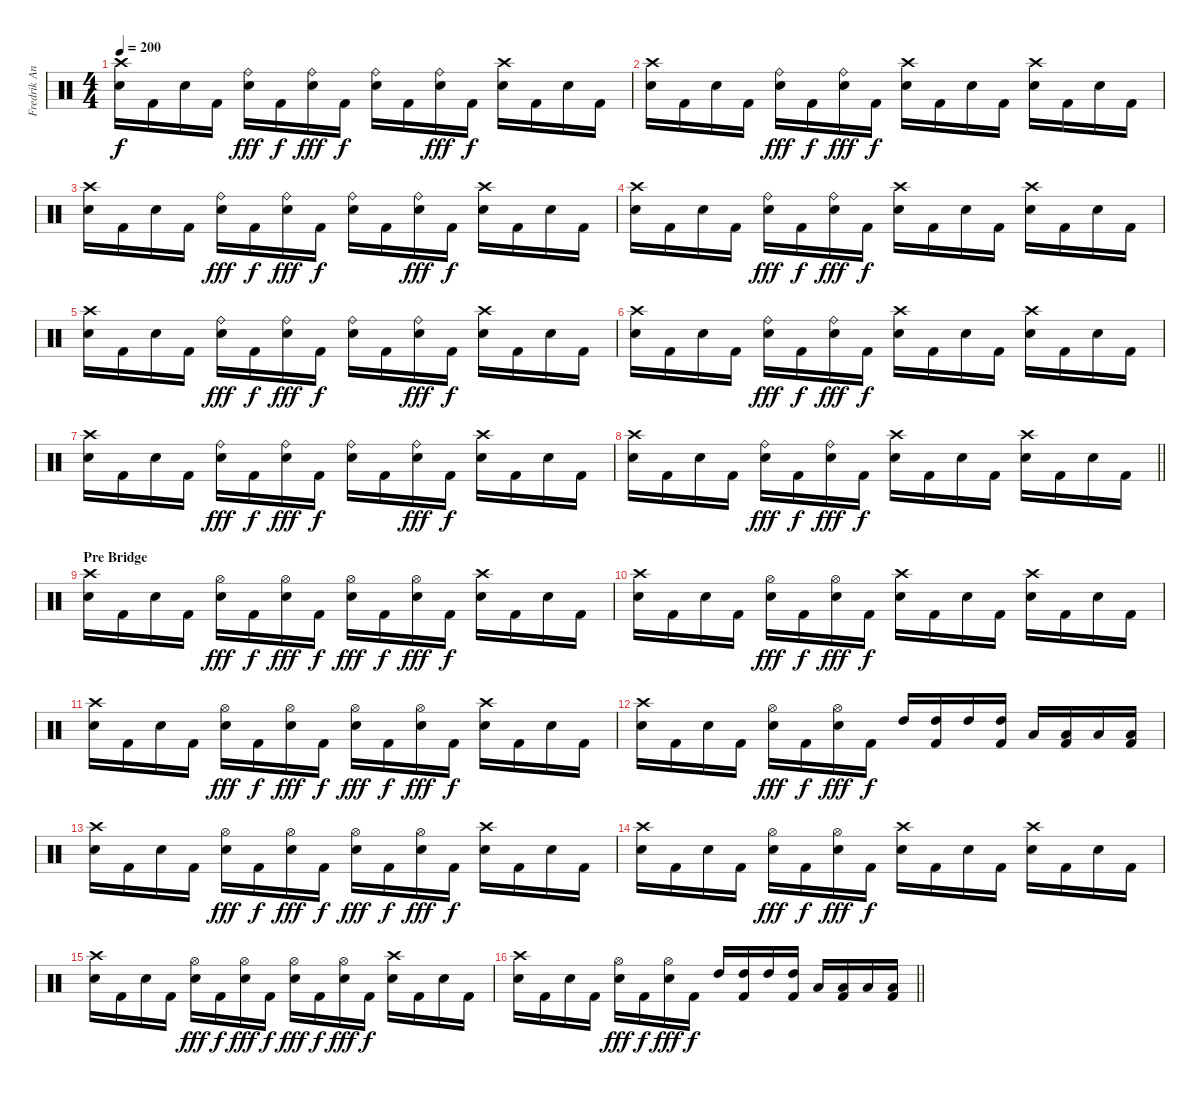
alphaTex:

\track ("Fredrik Andersson " "Fredrik An") {instrument percussion}
\staff {score}
\articulation defaults
\ts (4 4)
\tempo 200
\clef neutral
\ks c
("Crash high (hit)" "Snare (hit) 2").16{dy f} "Kick (hit) 2".16 "Snare (hit) 2".16 "Kick (hit) 2".16 ("Ride (bell)" "Snare (hit) 2").16{dy fff} "Kick (hit) 2".16{dy f} ("Ride (bell)" "Snare (hit) 2").16{dy fff} "Kick (hit) 2".16{dy f} ("Ride (bell)" "Snare (hit) 2").16 "Kick (hit) 2".16 ("Ride (bell)" "Snare (hit) 2").16{dy fff} "Kick (hit) 2".16{dy f} ("Crash high (hit)" "Snare (hit) 2").16 "Kick (hit) 2".16 "Snare (hit) 2".16 "Kick (hit) 2".16 |
("Crash high (hit)" "Snare (hit) 2").16 "Kick (hit) 2".16 "Snare (hit) 2".16 "Kick (hit) 2".16 ("Ride (bell)" "Snare (hit) 2").16{dy fff} "Kick (hit) 2".16{dy f} ("Ride (bell)" "Snare (hit) 2").16{dy fff} "Kick (hit) 2".16{dy f} ("Crash high (hit)" "Snare (hit) 2").16 "Kick (hit) 2".16 "Snare (hit) 2".16 "Kick (hit) 2".16 ("Crash high (hit)" "Snare (hit) 2").16 "Kick (hit) 2".16 "Snare (hit) 2".16 "Kick (hit) 2".16 |
("Crash high (hit)" "Snare (hit) 2").16 "Kick (hit) 2".16 "Snare (hit) 2".16 "Kick (hit) 2".16 ("Ride (bell)" "Snare (hit) 2").16{dy fff} "Kick (hit) 2".16{dy f} ("Ride (bell)" "Snare (hit) 2").16{dy fff} "Kick (hit) 2".16{dy f} ("Ride (bell)" "Snare (hit) 2").16 "Kick (hit) 2".16 ("Ride (bell)" "Snare (hit) 2").16{dy fff} "Kick (hit) 2".16{dy f} ("Crash high (hit)" "Snare (hit) 2").16 "Kick (hit) 2".16 "Snare (hit) 2".16 "Kick (hit) 2".16 |
("Crash high (hit)" "Snare (hit) 2").16 "Kick (hit) 2".16 "Snare (hit) 2".16 "Kick (hit) 2".16 ("Ride (bell)" "Snare (hit) 2").16{dy fff} "Kick (hit) 2".16{dy f} ("Ride (bell)" "Snare (hit) 2").16{dy fff} "Kick (hit) 2".16{dy f} ("Crash high (hit)" "Snare (hit) 2").16 "Kick (hit) 2".16 "Snare (hit) 2".16 "Kick (hit) 2".16 ("Crash high (hit)" "Snare (hit) 2").16 "Kick (hit) 2".16 "Snare (hit) 2".16 "Kick (hit) 2".16 |
("Crash high (hit)" "Snare (hit) 2").16 "Kick (hit) 2".16 "Snare (hit) 2".16 "Kick (hit) 2".16 ("Ride (bell)" "Snare (hit) 2").16{dy fff} "Kick (hit) 2".16{dy f} ("Ride (bell)" "Snare (hit) 2").16{dy fff} "Kick (hit) 2".16{dy f} ("Ride (bell)" "Snare (hit) 2").16 "Kick (hit) 2".16 ("Ride (bell)" "Snare (hit) 2").16{dy fff} "Kick (hit) 2".16{dy f} ("Crash high (hit)" "Snare (hit) 2").16 "Kick (hit) 2".16 "Snare (hit) 2".16 "Kick (hit) 2".16 |
("Crash high (hit)" "Snare (hit) 2").16 "Kick (hit) 2".16 "Snare (hit) 2".16 "Kick (hit) 2".16 ("Ride (bell)" "Snare (hit) 2").16{dy fff} "Kick (hit) 2".16{dy f} ("Ride (bell)" "Snare (hit) 2").16{dy fff} "Kick (hit) 2".16{dy f} ("Crash high (hit)" "Snare (hit) 2").16 "Kick (hit) 2".16 "Snare (hit) 2".16 "Kick (hit) 2".16 ("Crash high (hit)" "Snare (hit) 2").16 "Kick (hit) 2".16 "Snare (hit) 2".16 "Kick (hit) 2".16 |
("Crash high (hit)" "Snare (hit) 2").16 "Kick (hit) 2".16 "Snare (hit) 2".16 "Kick (hit) 2".16 ("Ride (bell)" "Snare (hit) 2").16{dy fff} "Kick (hit) 2".16{dy f} ("Ride (bell)" "Snare (hit) 2").16{dy fff} "Kick (hit) 2".16{dy f} ("Ride (bell)" "Snare (hit) 2").16 "Kick (hit) 2".16 ("Ride (bell)" "Snare (hit) 2").16{dy fff} "Kick (hit) 2".16{dy f} ("Crash high (hit)" "Snare (hit) 2").16 "Kick (hit) 2".16 "Snare (hit) 2".16 "Kick (hit) 2".16 |
\barLineRight lightlight
("Crash high (hit)" "Snare (hit) 2").16 "Kick (hit) 2".16 "Snare (hit) 2".16 "Kick (hit) 2".16 ("Ride (bell)" "Snare (hit) 2").16{dy fff} "Kick (hit) 2".16{dy f} ("Ride (bell)" "Snare (hit) 2").16{dy fff} "Kick (hit) 2".16{dy f} ("Crash high (hit)" "Snare (hit) 2").16 "Kick (hit) 2".16 "Snare (hit) 2".16 "Kick (hit) 2".16 ("Crash high (hit)" "Snare (hit) 2").16 "Kick (hit) 2".16 "Snare (hit) 2".16 "Kick (hit) 2".16 |
\section ("" "Pre Bridge")
("Crash high (hit)" "Snare (hit) 2").16 "Kick (hit) 2".16 "Snare (hit) 2".16 "Kick (hit) 2".16 ("Hi-Hat (open)" "Snare (hit) 2").16{dy fff} "Kick (hit) 2".16{dy f} ("Hi-Hat (open)" "Snare (hit) 2").16{dy fff} "Kick (hit) 2".16{dy f} ("Hi-Hat (open)" "Snare (hit) 2").16{dy fff} "Kick (hit) 2".16{dy f} ("Hi-Hat (open)" "Snare (hit) 2").16{dy fff} "Kick (hit) 2".16{dy f} ("Crash high (hit)" "Snare (hit) 2").16 "Kick (hit) 2".16 "Snare (hit) 2".16 "Kick (hit) 2".16 |
("Crash high (hit)" "Snare (hit) 2").16 "Kick (hit) 2".16 "Snare (hit) 2".16 "Kick (hit) 2".16 ("Hi-Hat (open)" "Snare (hit) 2").16{dy fff} "Kick (hit) 2".16{dy f} ("Hi-Hat (open)" "Snare (hit) 2").16{dy fff} "Kick (hit) 2".16{dy f} ("Crash high (hit)" "Snare (hit) 2").16 "Kick (hit) 2".16 "Snare (hit) 2".16 "Kick (hit) 2".16 ("Crash high (hit)" "Snare (hit) 2").16 "Kick (hit) 2".16 "Snare (hit) 2".16 "Kick (hit) 2".16 |
("Crash high (hit)" "Snare (hit) 2").16 "Kick (hit) 2".16 "Snare (hit) 2".16 "Kick (hit) 2".16 ("Hi-Hat (open)" "Snare (hit) 2").16{dy fff} "Kick (hit) 2".16{dy f} ("Hi-Hat (open)" "Snare (hit) 2").16{dy fff} "Kick (hit) 2".16{dy f} ("Hi-Hat (open)" "Snare (hit) 2").16{dy fff} "Kick (hit) 2".16{dy f} ("Hi-Hat (open)" "Snare (hit) 2").16{dy fff} "Kick (hit) 2".16{dy f} ("Crash high (hit)" "Snare (hit) 2").16 "Kick (hit) 2".16 "Snare (hit) 2".16 "Kick (hit) 2".16 |
("Crash high (hit)" "Snare (hit) 2").16 "Kick (hit) 2".16 "Snare (hit) 2".16 "Kick (hit) 2".16 ("Hi-Hat (open)" "Snare (hit) 2").16{dy fff} "Kick (hit) 2".16{dy f} ("Hi-Hat (open)" "Snare (hit) 2").16{dy fff} "Kick (hit) 2".16{dy f} "High Tom (hit)".16 ("High Tom (hit)" "Kick (hit) 2").16 "High Tom (hit)".16 ("High Tom (hit)" "Kick (hit) 2").16 "Low Tom (hit)".16 ("Low Tom (hit)" "Kick (hit) 2").16 "Low Tom (hit)".16 ("Low Tom (hit)" "Kick (hit) 2").16 |
("Crash high (hit)" "Snare (hit) 2").16 "Kick (hit) 2".16 "Snare (hit) 2".16 "Kick (hit) 2".16 ("Hi-Hat (open)" "Snare (hit) 2").16{dy fff} "Kick (hit) 2".16{dy f} ("Hi-Hat (open)" "Snare (hit) 2").16{dy fff} "Kick (hit) 2".16{dy f} ("Hi-Hat (open)" "Snare (hit) 2").16{dy fff} "Kick (hit) 2".16{dy f} ("Hi-Hat (open)" "Snare (hit) 2").16{dy fff} "Kick (hit) 2".16{dy f} ("Crash high (hit)" "Snare (hit) 2").16 "Kick (hit) 2".16 "Snare (hit) 2".16 "Kick (hit) 2".16 |
("Crash high (hit)" "Snare (hit) 2").16 "Kick (hit) 2".16 "Snare (hit) 2".16 "Kick (hit) 2".16 ("Hi-Hat (open)" "Snare (hit) 2").16{dy fff} "Kick (hit) 2".16{dy f} ("Hi-Hat (open)" "Snare (hit) 2").16{dy fff} "Kick (hit) 2".16{dy f} ("Crash high (hit)" "Snare (hit) 2").16 "Kick (hit) 2".16 "Snare (hit) 2".16 "Kick (hit) 2".16 ("Crash high (hit)" "Snare (hit) 2").16 "Kick (hit) 2".16 "Snare (hit) 2".16 "Kick (hit) 2".16 |
("Crash high (hit)" "Snare (hit) 2").16 "Kick (hit) 2".16 "Snare (hit) 2".16 "Kick (hit) 2".16 ("Hi-Hat (open)" "Snare (hit) 2").16{dy fff} "Kick (hit) 2".16{dy f} ("Hi-Hat (open)" "Snare (hit) 2").16{dy fff} "Kick (hit) 2".16{dy f} ("Hi-Hat (open)" "Snare (hit) 2").16{dy fff} "Kick (hit) 2".16{dy f} ("Hi-Hat (open)" "Snare (hit) 2").16{dy fff} "Kick (hit) 2".16{dy f} ("Crash high (hit)" "Snare (hit) 2").16 "Kick (hit) 2".16 "Snare (hit) 2".16 "Kick (hit) 2".16 |
\barLineRight lightlight
("Crash high (hit)" "Snare (hit) 2").16 "Kick (hit) 2".16 "Snare (hit) 2".16 "Kick (hit) 2".16 ("Hi-Hat (open)" "Snare (hit) 2").16{dy fff} "Kick (hit) 2".16{dy f} ("Hi-Hat (open)" "Snare (hit) 2").16{dy fff} "Kick (hit) 2".16{dy f} "High Tom (hit)".16 ("High Tom (hit)" "Kick (hit) 2").16 "High Tom (hit)".16 ("High Tom (hit)" "Kick (hit) 2").16 "Low Tom (hit)".16 ("Low Tom (hit)" "Kick (hit) 2").16 "Low Tom (hit)".16 ("Low Tom (hit)" "Kick (hit) 2").16
